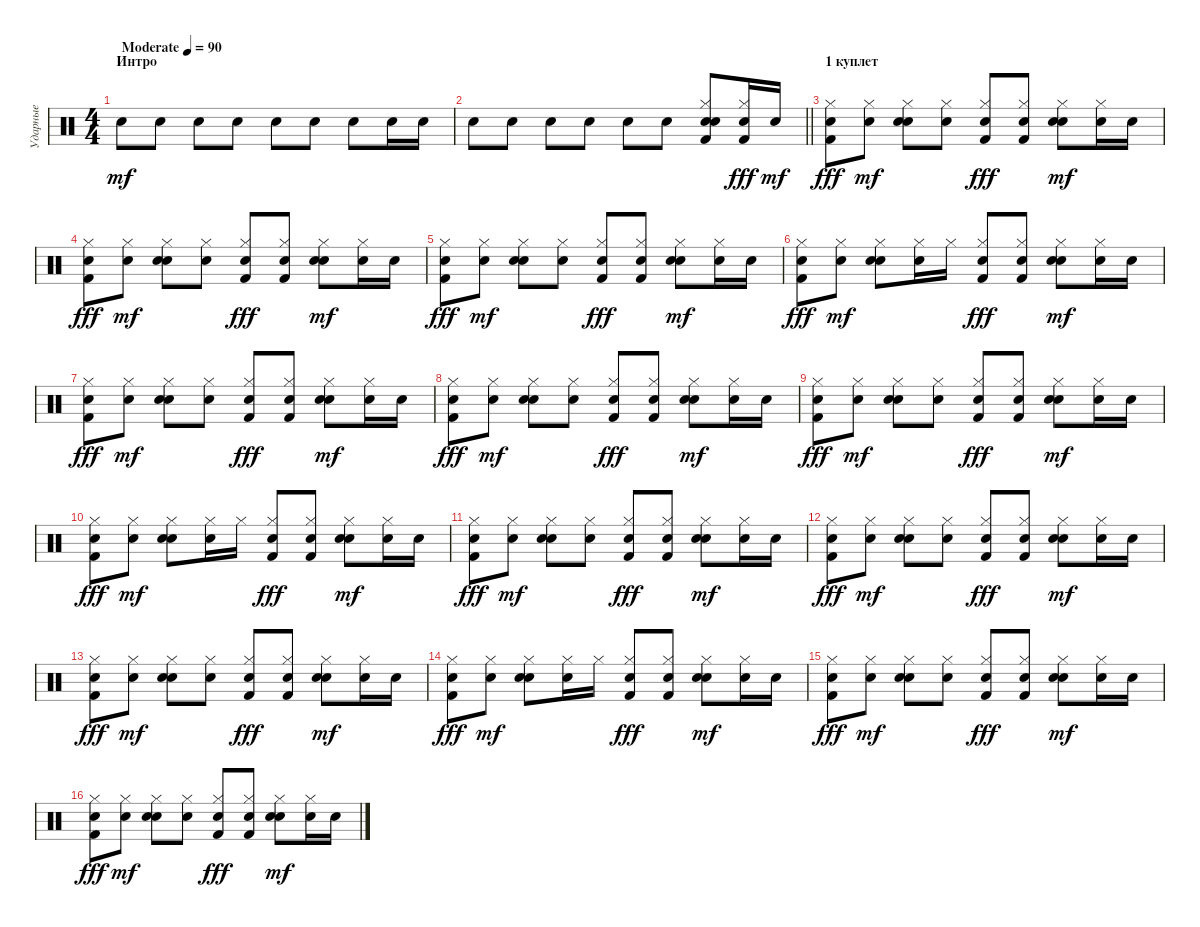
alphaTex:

\track ("Ударные" "Ударные") {instrument percussion}
\staff {score}
\articulation defaults
\ts (4 4)
\section ("" "Интро")
\tempo (90 "Moderate")
\clef neutral
\ks c "Hand Clap (hit)".8{dy mf} "Hand Clap (hit)".8 "Hand Clap (hit)".8 "Hand Clap (hit)".8 "Hand Clap (hit)".8 "Hand Clap (hit)".8 "Hand Clap (hit)".8 "Hand Clap (hit)".16 "Hand Clap (hit)".16
|
\barLineRight lightlight "Hand Clap (hit)".8 "Hand Clap (hit)".8 "Hand Clap (hit)".8 "Hand Clap (hit)".8 "Hand Clap (hit)".8 "Hand Clap (hit)".8
("Hand Clap (hit)" "Hi-Hat (closed)" "Snare (hit) 2" "Kick (hit) 2").8 ("Hand Clap (hit)" "Hi-Hat (closed)" "Kick (hit) 2").16{dy fff} "Hand Clap (hit)".16{dy mf} |
\section ("" "1 куплет")
("Hand Clap (hit)" "Hi-Hat (closed)" "Kick (hit) 2").8{dy fff} ("Hand Clap (hit)" "Hi-Hat (closed)").8{dy mf} ("Hand Clap (hit)" "Hi-Hat (closed)" "Snare (hit) 2").8 ("Hand Clap (hit)" "Hi-Hat (closed)").8 ("Hand Clap (hit)" "Hi-Hat (closed)" "Kick (hit) 2").8{dy fff} ("Hand Clap (hit)" "Hi-Hat (closed)" "Kick (hit) 2").8 ("Hand Clap (hit)" "Hi-Hat (closed)" "Snare (hit) 2").8{dy mf} ("Hand Clap (hit)" "Hi-Hat (closed)").16 "Hand Clap (hit)".16 |
("Hand Clap (hit)" "Hi-Hat (closed)" "Kick (hit) 2").8{dy fff} ("Hand Clap (hit)" "Hi-Hat (closed)").8{dy mf} ("Hand Clap (hit)" "Hi-Hat (closed)" "Snare (hit) 2").8 ("Hand Clap (hit)" "Hi-Hat (closed)").8 ("Hand Clap (hit)" "Hi-Hat (closed)" "Kick (hit) 2").8{dy fff} ("Hand Clap (hit)" "Hi-Hat (closed)" "Kick (hit) 2").8 ("Hand Clap (hit)" "Hi-Hat (closed)" "Snare (hit) 2").8{dy mf} ("Hand Clap (hit)" "Hi-Hat (closed)").16 "Hand Clap (hit)".16 |
("Hand Clap (hit)" "Hi-Hat (closed)" "Kick (hit) 2").8{dy fff} ("Hand Clap (hit)" "Hi-Hat (closed)").8{dy mf} ("Hand Clap (hit)" "Hi-Hat (closed)" "Snare (hit) 2").8 ("Hand Clap (hit)" "Hi-Hat (closed)").8 ("Hand Clap (hit)" "Hi-Hat (closed)" "Kick (hit) 2").8{dy fff} ("Hand Clap (hit)" "Hi-Hat (closed)" "Kick (hit) 2").8 ("Hand Clap (hit)" "Hi-Hat (closed)" "Snare (hit) 2").8{dy mf} ("Hand Clap (hit)" "Hi-Hat (closed)").16 "Hand Clap (hit)".16 |
("Hand Clap (hit)" "Hi-Hat (closed)" "Kick (hit) 2").8{dy fff} ("Hand Clap (hit)" "Hi-Hat (closed)").8{dy mf} ("Hand Clap (hit)" "Hi-Hat (closed)" "Snare (hit) 2").8 ("Hand Clap (hit)" "Hi-Hat (closed)").16 "Hi-Hat (closed)".16 ("Hand Clap (hit)" "Hi-Hat (closed)" "Kick (hit) 2").8{dy fff} ("Hand Clap (hit)" "Hi-Hat (closed)" "Kick (hit) 2").8 ("Hand Clap (hit)" "Hi-Hat (closed)" "Snare (hit) 2").8{dy mf} ("Hand Clap (hit)" "Hi-Hat (closed)").16 "Hand Clap (hit)".16 |
("Hand Clap (hit)" "Hi-Hat (closed)" "Kick (hit) 2").8{dy fff} ("Hand Clap (hit)" "Hi-Hat (closed)").8{dy mf} ("Hand Clap (hit)" "Hi-Hat (closed)" "Snare (hit) 2").8 ("Hand Clap (hit)" "Hi-Hat (closed)").8 ("Hand Clap (hit)" "Hi-Hat (closed)" "Kick (hit) 2").8{dy fff} ("Hand Clap (hit)" "Hi-Hat (closed)" "Kick (hit) 2").8 ("Hand Clap (hit)" "Hi-Hat (closed)" "Snare (hit) 2").8{dy mf} ("Hand Clap (hit)" "Hi-Hat (closed)").16 "Hand Clap (hit)".16 |
("Hand Clap (hit)" "Hi-Hat (closed)" "Kick (hit) 2").8{dy fff} ("Hand Clap (hit)" "Hi-Hat (closed)").8{dy mf} ("Hand Clap (hit)" "Hi-Hat (closed)" "Snare (hit) 2").8 ("Hand Clap (hit)" "Hi-Hat (closed)").8 ("Hand Clap (hit)" "Hi-Hat (closed)" "Kick (hit) 2").8{dy fff} ("Hand Clap (hit)" "Hi-Hat (closed)" "Kick (hit) 2").8 ("Hand Clap (hit)" "Hi-Hat (closed)" "Snare (hit) 2").8{dy mf} ("Hand Clap (hit)" "Hi-Hat (closed)").16 "Hand Clap (hit)".16 |
("Hand Clap (hit)" "Hi-Hat (closed)" "Kick (hit) 2").8{dy fff} ("Hand Clap (hit)" "Hi-Hat (closed)").8{dy mf} ("Hand Clap (hit)" "Hi-Hat (closed)" "Snare (hit) 2").8 ("Hand Clap (hit)" "Hi-Hat (closed)").8 ("Hand Clap (hit)" "Hi-Hat (closed)" "Kick (hit) 2").8{dy fff} ("Hand Clap (hit)" "Hi-Hat (closed)" "Kick (hit) 2").8 ("Hand Clap (hit)" "Hi-Hat (closed)" "Snare (hit) 2").8{dy mf} ("Hand Clap (hit)" "Hi-Hat (closed)").16 "Hand Clap (hit)".16 |
("Hand Clap (hit)" "Hi-Hat (closed)" "Kick (hit) 2").8{dy fff} ("Hand Clap (hit)" "Hi-Hat (closed)").8{dy mf} ("Hand Clap (hit)" "Hi-Hat (closed)" "Snare (hit) 2").8 ("Hand Clap (hit)" "Hi-Hat (closed)").16 "Hi-Hat (closed)".16 ("Hand Clap (hit)" "Hi-Hat (closed)" "Kick (hit) 2").8{dy fff} ("Hand Clap (hit)" "Hi-Hat (closed)" "Kick (hit) 2").8 ("Hand Clap (hit)" "Hi-Hat (closed)" "Snare (hit) 2").8{dy mf} ("Hand Clap (hit)" "Hi-Hat (closed)").16 "Hand Clap (hit)".16 |
("Hand Clap (hit)" "Hi-Hat (closed)" "Kick (hit) 2").8{dy fff} ("Hand Clap (hit)" "Hi-Hat (closed)").8{dy mf} ("Hand Clap (hit)" "Hi-Hat (closed)" "Snare (hit) 2").8 ("Hand Clap (hit)" "Hi-Hat (closed)").8 ("Hand Clap (hit)" "Hi-Hat (closed)" "Kick (hit) 2").8{dy fff} ("Hand Clap (hit)" "Hi-Hat (closed)" "Kick (hit) 2").8 ("Hand Clap (hit)" "Hi-Hat (closed)" "Snare (hit) 2").8{dy mf} ("Hand Clap (hit)" "Hi-Hat (closed)").16 "Hand Clap (hit)".16 |
("Hand Clap (hit)" "Hi-Hat (closed)" "Kick (hit) 2").8{dy fff} ("Hand Clap (hit)" "Hi-Hat (closed)").8{dy mf} ("Hand Clap (hit)" "Hi-Hat (closed)" "Snare (hit) 2").8 ("Hand Clap (hit)" "Hi-Hat (closed)").8 ("Hand Clap (hit)" "Hi-Hat (closed)" "Kick (hit) 2").8{dy fff} ("Hand Clap (hit)" "Hi-Hat (closed)" "Kick (hit) 2").8 ("Hand Clap (hit)" "Hi-Hat (closed)" "Snare (hit) 2").8{dy mf} ("Hand Clap (hit)" "Hi-Hat (closed)").16 "Hand Clap (hit)".16 |
("Hand Clap (hit)" "Hi-Hat (closed)" "Kick (hit) 2").8{dy fff} ("Hand Clap (hit)" "Hi-Hat (closed)").8{dy mf} ("Hand Clap (hit)" "Hi-Hat (closed)" "Snare (hit) 2").8 ("Hand Clap (hit)" "Hi-Hat (closed)").8 ("Hand Clap (hit)" "Hi-Hat (closed)" "Kick (hit) 2").8{dy fff} ("Hand Clap (hit)" "Hi-Hat (closed)" "Kick (hit) 2").8 ("Hand Clap (hit)" "Hi-Hat (closed)" "Snare (hit) 2").8{dy mf} ("Hand Clap (hit)" "Hi-Hat (closed)").16 "Hand Clap (hit)".16 |
("Hand Clap (hit)" "Hi-Hat (closed)" "Kick (hit) 2").8{dy fff} ("Hand Clap (hit)" "Hi-Hat (closed)").8{dy mf} ("Hand Clap (hit)" "Hi-Hat (closed)" "Snare (hit) 2").8 ("Hand Clap (hit)" "Hi-Hat (closed)").16 "Hi-Hat (closed)".16 ("Hand Clap (hit)" "Hi-Hat (closed)" "Kick (hit) 2").8{dy fff} ("Hand Clap (hit)" "Hi-Hat (closed)" "Kick (hit) 2").8 ("Hand Clap (hit)" "Hi-Hat (closed)" "Snare (hit) 2").8{dy mf} ("Hand Clap (hit)" "Hi-Hat (closed)").16 "Hand Clap (hit)".16 |
("Hand Clap (hit)" "Hi-Hat (closed)" "Kick (hit) 2").8{dy fff} ("Hand Clap (hit)" "Hi-Hat (closed)").8{dy mf} ("Hand Clap (hit)" "Hi-Hat (closed)" "Snare (hit) 2").8 ("Hand Clap (hit)" "Hi-Hat (closed)").8 ("Hand Clap (hit)" "Hi-Hat (closed)" "Kick (hit) 2").8{dy fff} ("Hand Clap (hit)" "Hi-Hat (closed)" "Kick (hit) 2").8 ("Hand Clap (hit)" "Hi-Hat (closed)" "Snare (hit) 2").8{dy mf} ("Hand Clap (hit)" "Hi-Hat (closed)").16 "Hand Clap (hit)".16 |
("Hand Clap (hit)" "Hi-Hat (closed)" "Kick (hit) 2").8{dy fff} ("Hand Clap (hit)" "Hi-Hat (closed)").8{dy mf} ("Hand Clap (hit)" "Hi-Hat (closed)" "Snare (hit) 2").8 ("Hand Clap (hit)" "Hi-Hat (closed)").8 ("Hand Clap (hit)" "Hi-Hat (closed)" "Kick (hit) 2").8{dy fff} ("Hand Clap (hit)" "Hi-Hat (closed)" "Kick (hit) 2").8 ("Hand Clap (hit)" "Hi-Hat (closed)" "Snare (hit) 2").8{dy mf} ("Hand Clap (hit)" "Hi-Hat (closed)").16 "Hand Clap (hit)".16
